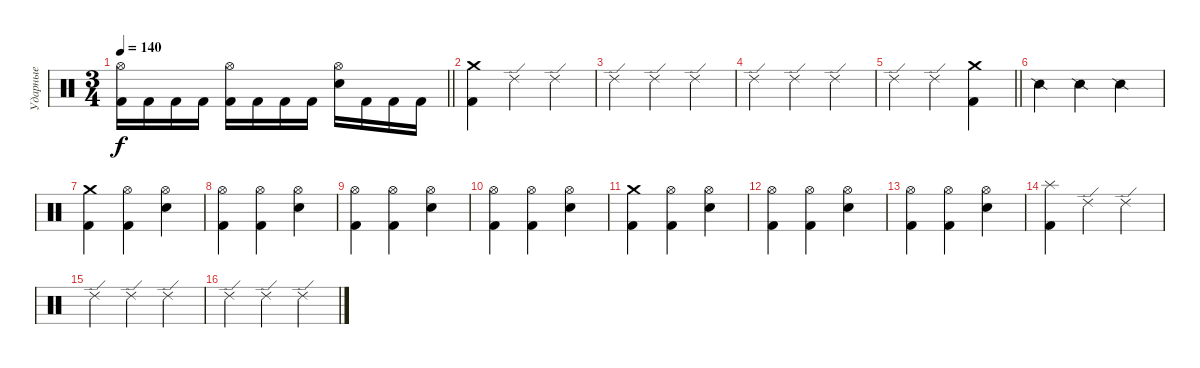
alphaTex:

\track ("Ударные" "Ударные") {instrument percussion}
\staff {score}
\articulation defaults
\ts (3 4)
\tempo 140
\clef neutral
\barLineRight lightlight
\ks c
("Kick (hit) 2" "Hi-Hat (open)").16{dy f} "Kick (hit) 2".16 "Kick (hit) 2".16 "Kick (hit) 2".16 ("Kick (hit) 2" "Hi-Hat (open)").16 "Kick (hit) 2".16 "Kick (hit) 2".16 "Kick (hit) 2".16 ("Electric Snare (hit)" "Hi-Hat (open)").16 "Kick (hit) 2".16 "Kick (hit) 2".16 "Kick (hit) 2".16 |
("Kick (hit) 2" "Crash medium (hit)").4 "Ride (edge) 2".4 "Ride (edge) 2".4 |
"Ride (edge) 2".4 "Ride (edge) 2".4 "Ride (edge) 2".4 |
"Ride (edge) 2".4 "Ride (edge) 2".4 "Ride (edge) 2".4 |
\barLineRight lightlight "Ride (edge) 2".4 "Ride (edge) 2".4
("Kick (hit) 2" "Crash medium (hit)").4 |
"Snare (side stick) 2".4 "Snare (side stick) 2".4 "Snare (side stick) 2".4 |
("Kick (hit) 2" "Crash medium (hit)").4 ("Kick (hit) 2" "Hi-Hat (open)").4 ("Hi-Hat (open)" "Electric Snare (hit)").4 |
("Kick (hit) 2" "Hi-Hat (open)").4 ("Kick (hit) 2" "Hi-Hat (open)").4 ("Hi-Hat (open)" "Electric Snare (hit)").4 |
("Kick (hit) 2" "Hi-Hat (open)").4 ("Kick (hit) 2" "Hi-Hat (open)").4 ("Hi-Hat (open)" "Electric Snare (hit)").4 |
("Kick (hit) 2" "Hi-Hat (open)").4 ("Kick (hit) 2" "Hi-Hat (open)").4 ("Hi-Hat (open)" "Electric Snare (hit)").4 |
("Kick (hit) 2" "Crash medium (hit)").4 ("Kick (hit) 2" "Hi-Hat (open)").4 ("Hi-Hat (open)" "Electric Snare (hit)").4 |
("Kick (hit) 2" "Hi-Hat (open)").4 ("Kick (hit) 2" "Hi-Hat (open)").4 ("Hi-Hat (open)" "Electric Snare (hit)").4 |
("Kick (hit) 2" "Hi-Hat (open)").4 ("Kick (hit) 2" "Hi-Hat (open)").4 ("Hi-Hat (open)" "Electric Snare (hit)").4 |
("Kick (hit) 2" "Splash (hit)").4 "Ride (edge) 2".4 "Ride (edge) 2".4 |
"Ride (edge) 2".4 "Ride (edge) 2".4 "Ride (edge) 2".4 |
"Ride (edge) 2".4 "Ride (edge) 2".4 "Ride (edge) 2".4
